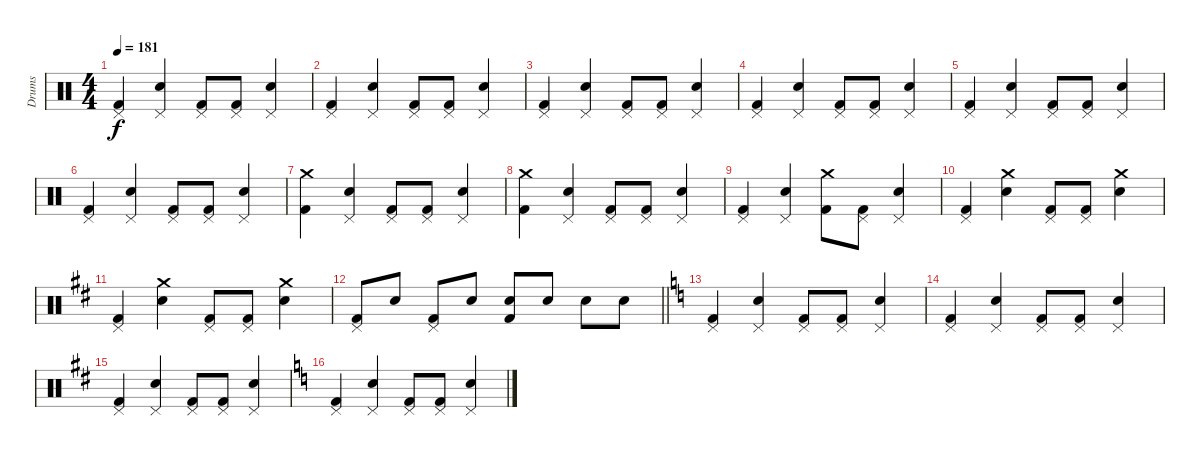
\track ("Drums" "Drums") {instrument percussion}
\staff {score}
\articulation defaults
\ts (4 4)
\tempo 181
\clef neutral
\ks c
("Pedal Hi-Hat (hit)" "Kick (hit) 2").4{dy f} ("Pedal Hi-Hat (hit)" "Snare (hit) 2").4 ("Pedal Hi-Hat (hit)" "Kick (hit) 2").8 ("Pedal Hi-Hat (hit)" "Kick (hit) 2").8 ("Pedal Hi-Hat (hit)" "Snare (hit) 2").4 |
("Pedal Hi-Hat (hit)" "Kick (hit) 2").4 ("Pedal Hi-Hat (hit)" "Snare (hit) 2").4 ("Pedal Hi-Hat (hit)" "Kick (hit) 2").8 ("Pedal Hi-Hat (hit)" "Kick (hit) 2").8 ("Pedal Hi-Hat (hit)" "Snare (hit) 2").4 |
("Pedal Hi-Hat (hit)" "Kick (hit) 2").4 ("Pedal Hi-Hat (hit)" "Snare (hit) 2").4 ("Pedal Hi-Hat (hit)" "Kick (hit) 2").8 ("Pedal Hi-Hat (hit)" "Kick (hit) 2").8 ("Pedal Hi-Hat (hit)" "Snare (hit) 2").4 |
("Pedal Hi-Hat (hit)" "Kick (hit) 2").4 ("Pedal Hi-Hat (hit)" "Snare (hit) 2").4 ("Pedal Hi-Hat (hit)" "Kick (hit) 2").8 ("Pedal Hi-Hat (hit)" "Kick (hit) 2").8 ("Pedal Hi-Hat (hit)" "Snare (hit) 2").4 |
("Pedal Hi-Hat (hit)" "Kick (hit) 2").4 ("Pedal Hi-Hat (hit)" "Snare (hit) 2").4 ("Pedal Hi-Hat (hit)" "Kick (hit) 2").8 ("Pedal Hi-Hat (hit)" "Kick (hit) 2").8 ("Pedal Hi-Hat (hit)" "Snare (hit) 2").4 |
("Pedal Hi-Hat (hit)" "Kick (hit) 2").4 ("Pedal Hi-Hat (hit)" "Snare (hit) 2").4 ("Pedal Hi-Hat (hit)" "Kick (hit) 2").8 ("Pedal Hi-Hat (hit)" "Kick (hit) 2").8 ("Pedal Hi-Hat (hit)" "Snare (hit) 2").4 |
("Crash medium (hit)" "Kick (hit) 2").4 ("Pedal Hi-Hat (hit)" "Snare (hit) 2").4 ("Pedal Hi-Hat (hit)" "Kick (hit) 2").8 ("Pedal Hi-Hat (hit)" "Kick (hit) 2").8 ("Pedal Hi-Hat (hit)" "Snare (hit) 2").4 |
("Crash medium (hit)" "Kick (hit) 2").4 ("Pedal Hi-Hat (hit)" "Snare (hit) 2").4 ("Pedal Hi-Hat (hit)" "Kick (hit) 2").8 ("Pedal Hi-Hat (hit)" "Kick (hit) 2").8 ("Pedal Hi-Hat (hit)" "Snare (hit) 2").4 |
("Pedal Hi-Hat (hit)" "Kick (hit) 2").4 ("Pedal Hi-Hat (hit)" "Snare (hit) 2").4 ("Crash medium (hit)" "Kick (hit) 2").8 ("Pedal Hi-Hat (hit)" "Kick (hit) 2").8 ("Pedal Hi-Hat (hit)" "Snare (hit) 2").4 |
("Pedal Hi-Hat (hit)" "Kick (hit) 2").4 ("Crash medium (hit)" "Snare (hit) 2").4 ("Pedal Hi-Hat (hit)" "Kick (hit) 2").8 ("Pedal Hi-Hat (hit)" "Kick (hit) 2").8 ("Crash medium (hit)" "Snare (hit) 2").4 |
\ks d
("Pedal Hi-Hat (hit)" "Kick (hit) 2").4 ("Crash medium (hit)" "Snare (hit) 2").4 ("Pedal Hi-Hat (hit)" "Kick (hit) 2").8 ("Pedal Hi-Hat (hit)" "Kick (hit) 2").8 ("Crash medium (hit)" "Snare (hit) 2").4 |
\barLineRight lightlight
("Pedal Hi-Hat (hit)" "Kick (hit) 2").8 "Snare (hit) 2".8 ("Pedal Hi-Hat (hit)" "Kick (hit) 2").8 "Snare (hit) 2".8 ("Snare (hit) 2" "Kick (hit) 2").8 "Snare (hit) 2".8 "Snare (hit) 2".8 "Snare (hit) 2".8 |
\ks c
("Pedal Hi-Hat (hit)" "Kick (hit) 2").4 ("Pedal Hi-Hat (hit)" "Snare (hit) 2").4 ("Pedal Hi-Hat (hit)" "Kick (hit) 2").8 ("Pedal Hi-Hat (hit)" "Kick (hit) 2").8 ("Pedal Hi-Hat (hit)" "Snare (hit) 2").4 |
("Pedal Hi-Hat (hit)" "Kick (hit) 2").4 ("Pedal Hi-Hat (hit)" "Snare (hit) 2").4 ("Pedal Hi-Hat (hit)" "Kick (hit) 2").8 ("Pedal Hi-Hat (hit)" "Kick (hit) 2").8 ("Pedal Hi-Hat (hit)" "Snare (hit) 2").4 |
\ks d
("Pedal Hi-Hat (hit)" "Kick (hit) 2").4 ("Pedal Hi-Hat (hit)" "Snare (hit) 2").4 ("Pedal Hi-Hat (hit)" "Kick (hit) 2").8 ("Pedal Hi-Hat (hit)" "Kick (hit) 2").8 ("Pedal Hi-Hat (hit)" "Snare (hit) 2").4 |
\ks c
("Pedal Hi-Hat (hit)" "Kick (hit) 2").4 ("Pedal Hi-Hat (hit)" "Snare (hit) 2").4 ("Pedal Hi-Hat (hit)" "Kick (hit) 2").8 ("Pedal Hi-Hat (hit)" "Kick (hit) 2").8 ("Pedal Hi-Hat (hit)" "Snare (hit) 2").4
